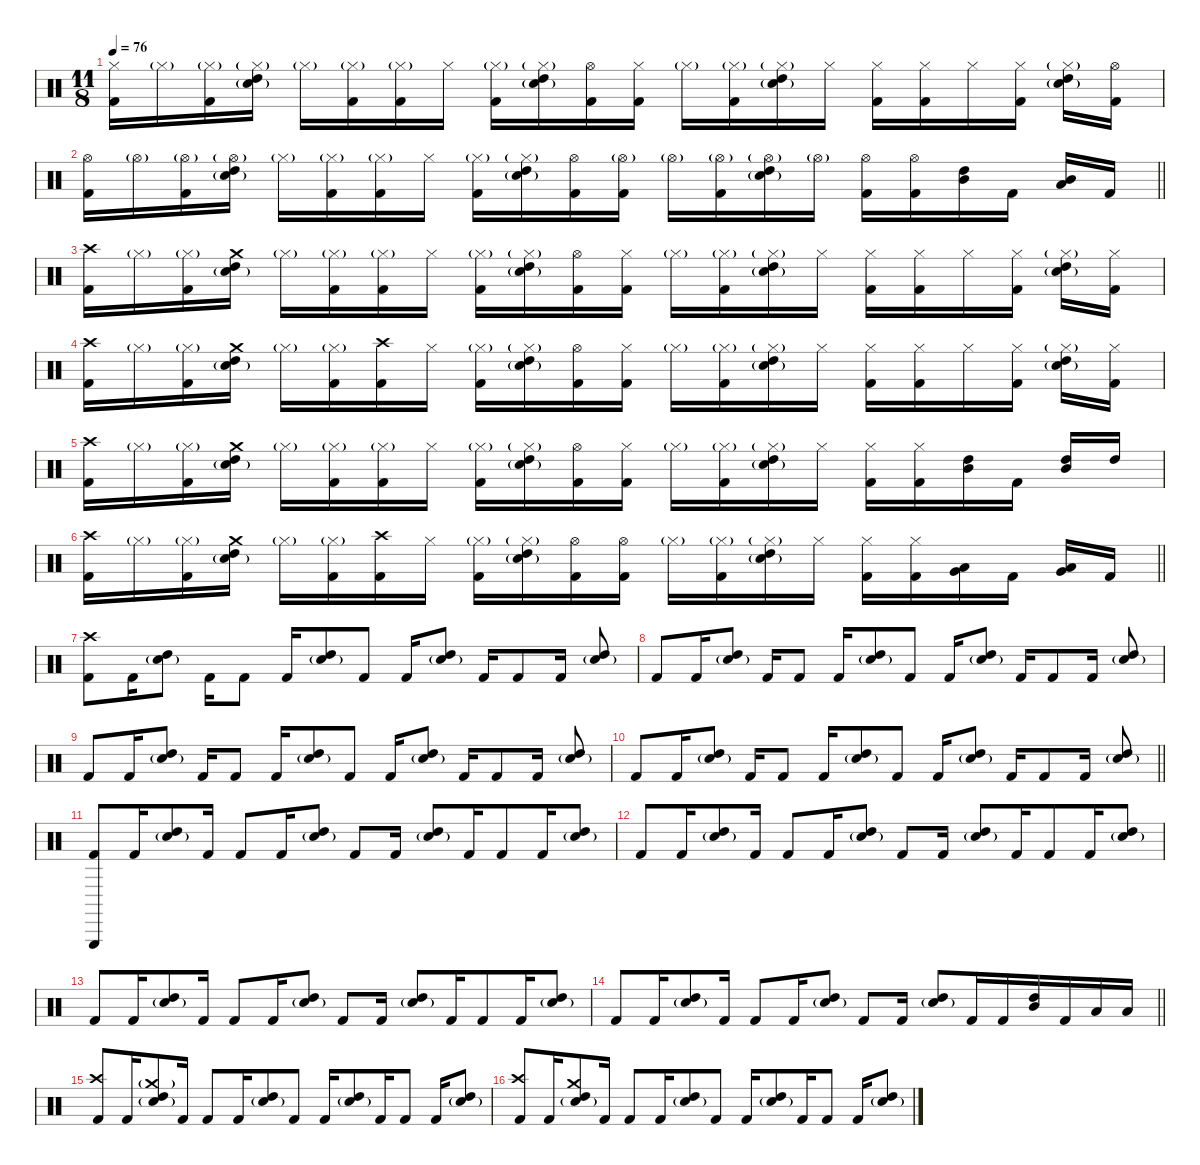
\defaultSystemsLayout 4
\hideDynamics
\bracketExtendMode nobrackets
\singleTrackTrackNamePolicy hidden
\multiTrackTrackNamePolicy hidden
\otherSystemsTrackNameOrientation horizontal
\track ("Drums" "drm.") {instrument percussion}
\staff {score}
\articulation defaults
\ts (11 8)
\tempo 76
\clef neutral
\ks c
("Hi-Hat (closed)" "Kick (hit) 2").16{dy f beam Down} "Hi-Hat (closed)"{g}.16{beam Down} ("Hi-Hat (closed)"{g} "Kick (hit) 2").16{beam Down} ("Hi-Hat (closed)"{g} "High Tom (hit)" "Snare (hit) 2"{g}).16{beam Down} "Hi-Hat (closed)"{g}.16{beam Down} ("Hi-Hat (closed)"{g} "Kick (hit) 2").16{beam Down} ("Hi-Hat (closed)"{g} "Kick (hit) 2").16{beam Down} "Hi-Hat (closed)".16{beam Down} ("Hi-Hat (closed)"{g} "Kick (hit) 2").16{beam Down} ("Hi-Hat (closed)"{g} "High Tom (hit)" "Snare (hit) 2"{g}).16{beam Down} ("Hi-Hat (open)" "Kick (hit) 2").16{beam Down} ("Hi-Hat (closed)" "Kick (hit) 2").16{beam Down} "Hi-Hat (closed)"{g}.16{beam Down} ("Hi-Hat (closed)"{g} "Kick (hit) 2").16{beam Down} ("Hi-Hat (closed)"{g} "High Tom (hit)" "Snare (hit) 2"{g}).16{beam Down} "Hi-Hat (closed)".16{beam Down} ("Hi-Hat (closed)" "Kick (hit) 2").16{beam Down} ("Hi-Hat (closed)" "Kick (hit) 2").16{beam Down} "Hi-Hat (closed)".16{beam Down} ("Hi-Hat (closed)" "Kick (hit) 2").16{beam Down} ("Hi-Hat (closed)"{g} "High Tom (hit)" "Snare (hit) 2"{g}).16{beam Down} ("Hi-Hat (open)" "Kick (hit) 2").16{beam Down} |
\barLineRight lightlight
("Hi-Hat (open)" "Kick (hit) 2").16{beam Down} "Hi-Hat (open)"{g}.16{beam Down} ("Hi-Hat (open)"{g} "Kick (hit) 2").16{beam Down} ("Hi-Hat (open)"{g} "High Tom (hit)" "Snare (hit) 2"{g}).16{beam Down} "Hi-Hat (closed)"{g}.16{beam Down} ("Hi-Hat (closed)"{g} "Kick (hit) 2").16{beam Down} ("Hi-Hat (closed)"{g} "Kick (hit) 2").16{beam Down} "Hi-Hat (closed)".16{beam Down} ("Hi-Hat (closed)"{g} "Kick (hit) 2").16{beam Down} ("Hi-Hat (closed)"{g} "High Tom (hit)" "Snare (hit) 2"{g}).16{beam Down} ("Hi-Hat (open)" "Kick (hit) 2").16{beam Down} ("Hi-Hat (open)"{g} "Kick (hit) 2").16{beam Down} "Hi-Hat (open)"{g}.16{beam Down} ("Hi-Hat (open)"{g} "Kick (hit) 2").16{beam Down} ("Hi-Hat (open)"{g} "High Tom (hit)" "Snare (hit) 2"{g}).16{beam Down} "Hi-Hat (open)"{g}.16{dy ff beam Down} ("Hi-Hat (open)" "Kick (hit) 2").16{dy f beam Down} ("Hi-Hat (open)" "Kick (hit) 2").16{beam Down} ("High Tom (hit)" "Mid Tom (hit)").16{beam Up} "Kick (hit) 2".16{beam Up} ("Mid Tom (hit)" "Low Tom (hit)").16{beam Up} "Kick (hit) 2".16{beam Up} |
\section ("" "")
("Crash high (hit)" "Kick (hit) 2").16{beam Down} "Hi-Hat (closed)"{g}.16{beam Down} ("Hi-Hat (closed)"{g} "Kick (hit) 2").16{beam Down} ("Crash medium (hit)" "High Tom (hit)" "Snare (hit) 2"{g}).16{beam Down} "Hi-Hat (closed)"{g}.16{beam Down} ("Hi-Hat (closed)"{g} "Kick (hit) 2").16{beam Down} ("Hi-Hat (closed)"{g} "Kick (hit) 2").16{beam Down} "Hi-Hat (closed)".16{beam Down} ("Hi-Hat (closed)"{g} "Kick (hit) 2").16{beam Down} ("Hi-Hat (closed)"{g} "High Tom (hit)" "Snare (hit) 2"{g}).16{beam Down} ("Hi-Hat (open)" "Kick (hit) 2").16{beam Down} ("Hi-Hat (closed)" "Kick (hit) 2").16{beam Down} "Hi-Hat (closed)"{g}.16{beam Down} ("Hi-Hat (closed)"{g} "Kick (hit) 2").16{beam Down} ("Hi-Hat (closed)"{g} "High Tom (hit)" "Snare (hit) 2"{g}).16{beam Down} "Hi-Hat (closed)".16{beam Down} ("Hi-Hat (closed)" "Kick (hit) 2").16{beam Down} ("Hi-Hat (closed)" "Kick (hit) 2").16{beam Down} "Hi-Hat (closed)".16{beam Down} ("Hi-Hat (closed)" "Kick (hit) 2").16{beam Down} ("Hi-Hat (closed)"{g} "High Tom (hit)" "Snare (hit) 2"{g}).16{beam Down} ("Hi-Hat (closed)" "Kick (hit) 2").16{beam Down} |
("Crash high (hit)" "Kick (hit) 2").16{beam Down} "Hi-Hat (closed)"{g}.16{beam Down} ("Hi-Hat (closed)"{g} "Kick (hit) 2").16{beam Down} ("Crash medium (hit)" "High Tom (hit)" "Snare (hit) 2"{g}).16{beam Down} "Hi-Hat (closed)"{g}.16{beam Down} ("Hi-Hat (closed)"{g} "Kick (hit) 2").16{beam Down} ("Crash high (hit)" "Kick (hit) 2").16{beam Down} "Hi-Hat (closed)".16{beam Down} ("Hi-Hat (closed)"{g} "Kick (hit) 2").16{beam Down} ("Hi-Hat (closed)"{g} "High Tom (hit)" "Snare (hit) 2"{g}).16{beam Down} ("Hi-Hat (open)" "Kick (hit) 2").16{beam Down} ("Hi-Hat (closed)" "Kick (hit) 2").16{beam Down} "Hi-Hat (closed)"{g}.16{beam Down} ("Hi-Hat (closed)"{g} "Kick (hit) 2").16{beam Down} ("Hi-Hat (closed)"{g} "High Tom (hit)" "Snare (hit) 2"{g}).16{beam Down} "Hi-Hat (closed)".16{beam Down} ("Hi-Hat (closed)" "Kick (hit) 2").16{beam Down} ("Hi-Hat (closed)" "Kick (hit) 2").16{beam Down} "Hi-Hat (closed)".16{beam Down} ("Hi-Hat (closed)" "Kick (hit) 2").16{beam Down} ("Hi-Hat (closed)"{g} "High Tom (hit)" "Snare (hit) 2"{g}).16{beam Down} ("Hi-Hat (closed)" "Kick (hit) 2").16{beam Down} |
("Crash high (hit)" "Kick (hit) 2").16{beam Down} "Hi-Hat (closed)"{g}.16{beam Down} ("Hi-Hat (closed)"{g} "Kick (hit) 2").16{beam Down} ("Crash medium (hit)" "High Tom (hit)" "Snare (hit) 2"{g}).16{beam Down} "Hi-Hat (closed)"{g}.16{beam Down} ("Hi-Hat (closed)"{g} "Kick (hit) 2").16{beam Down} ("Hi-Hat (closed)"{g} "Kick (hit) 2").16{beam Down} "Hi-Hat (closed)".16{beam Down} ("Hi-Hat (closed)"{g} "Kick (hit) 2").16{beam Down} ("Hi-Hat (closed)"{g} "High Tom (hit)" "Snare (hit) 2"{g}).16{beam Down} ("Hi-Hat (open)" "Kick (hit) 2").16{beam Down} ("Hi-Hat (closed)" "Kick (hit) 2").16{beam Down} "Hi-Hat (closed)"{g}.16{beam Down} ("Hi-Hat (closed)"{g} "Kick (hit) 2").16{beam Down} ("Hi-Hat (closed)"{g} "High Tom (hit)" "Snare (hit) 2"{g}).16{beam Down} "Hi-Hat (closed)".16{beam Down} ("Hi-Hat (closed)" "Kick (hit) 2").16{beam Down} ("Hi-Hat (closed)" "Kick (hit) 2").16{beam Down} ("High Tom (hit)" "Mid Tom (hit)").16{beam Up} "Kick (hit) 2".16{beam Up} ("High Tom (hit)" "Mid Tom (hit)").16{beam Up} "High Tom (hit)".16{beam Up} |
\barLineRight lightlight
("Crash high (hit)" "Kick (hit) 2").16{beam Down} "Hi-Hat (closed)"{g}.16{beam Down} ("Hi-Hat (closed)"{g} "Kick (hit) 2").16{beam Down} ("Crash medium (hit)" "High Tom (hit)" "Snare (hit) 2"{g}).16{beam Down} "Hi-Hat (closed)"{g}.16{beam Down} ("Hi-Hat (closed)"{g} "Kick (hit) 2").16{beam Down} ("Crash high (hit)" "Kick (hit) 2").16{beam Down} "Hi-Hat (closed)".16{beam Down} ("Hi-Hat (closed)"{g} "Kick (hit) 2").16{beam Down} ("Hi-Hat (closed)"{g} "High Tom (hit)" "Snare (hit) 2"{g}).16{beam Down} ("Hi-Hat (open)" "Kick (hit) 2").16{beam Down} ("Hi-Hat (open)" "Kick (hit) 2").16{beam Down} "Hi-Hat (closed)"{g}.16{beam Down} ("Hi-Hat (closed)"{g} "Kick (hit) 2").16{beam Down} ("Hi-Hat (closed)"{g} "High Tom (hit)" "Snare (hit) 2"{g}).16{beam Down} "Hi-Hat (closed)".16{beam Down} ("Hi-Hat (closed)" "Kick (hit) 2").16{beam Down} ("Hi-Hat (closed)" "Kick (hit) 2").16{beam Down} ("Low Tom (hit)" "Very Low Tom (hit)").16{beam Up} "Kick (hit) 2".16{beam Up} ("Very Low Tom (hit)" "Low Floor Tom (hit)").16{beam Up} "Kick (hit) 2".16{beam Up} |
\section ("" "")
("Crash high (hit)" "Kick (hit) 2").8{beam Down} "Kick (hit) 2".16{beam Down} ("High Tom (hit)" "Snare (hit) 2"{g}).8{beam Down} "Kick (hit) 2".16{beam Down} "Kick (hit) 2".8{beam Up} "Kick (hit) 2".16{beam Up} ("High Tom (hit)" "Snare (hit) 2"{g}).8{beam Up} "Kick (hit) 2".8{beam Up} "Kick (hit) 2".16{beam Up} ("High Tom (hit)" "Snare (hit) 2"{g}).8{beam Up} "Kick (hit) 2".16{beam Up} "Kick (hit) 2".8{beam Up} "Kick (hit) 2".16{beam Up} ("High Tom (hit)" "Snare (hit) 2"{g}).8{beam Up} |
"Kick (hit) 2".8{beam Up} "Kick (hit) 2".16{beam Up} ("High Tom (hit)" "Snare (hit) 2"{g}).8{beam Up} "Kick (hit) 2".16{beam Up} "Kick (hit) 2".8{beam Up} "Kick (hit) 2".16{beam Up} ("High Tom (hit)" "Snare (hit) 2"{g}).8{beam Up} "Kick (hit) 2".8{beam Up} "Kick (hit) 2".16{beam Up} ("High Tom (hit)" "Snare (hit) 2"{g}).8{beam Up} "Kick (hit) 2".16{beam Up} "Kick (hit) 2".8{beam Up} "Kick (hit) 2".16{beam Up} ("High Tom (hit)" "Snare (hit) 2"{g}).8{beam Up} |
"Kick (hit) 2".8{beam Up} "Kick (hit) 2".16{beam Up} ("High Tom (hit)" "Snare (hit) 2"{g}).8{beam Up} "Kick (hit) 2".16{beam Up} "Kick (hit) 2".8{beam Up} "Kick (hit) 2".16{beam Up} ("High Tom (hit)" "Snare (hit) 2"{g}).8{beam Up} "Kick (hit) 2".8{beam Up} "Kick (hit) 2".16{beam Up} ("High Tom (hit)" "Snare (hit) 2"{g}).8{beam Up} "Kick (hit) 2".16{beam Up} "Kick (hit) 2".8{beam Up} "Kick (hit) 2".16{beam Up} ("High Tom (hit)" "Snare (hit) 2"{g}).8{beam Up} |
\barLineRight lightlight "Kick (hit) 2".8{beam Up} "Kick (hit) 2".16{beam Up}
("High Tom (hit)" "Snare (hit) 2"{g}).8{beam Up} "Kick (hit) 2".16{beam Up} "Kick (hit) 2".8{beam Up} "Kick (hit) 2".16{beam Up} ("High Tom (hit)" "Snare (hit) 2"{g}).8{beam Up} "Kick (hit) 2".8{beam Up} "Kick (hit) 2".16{beam Up} ("High Tom (hit)" "Snare (hit) 2"{g}).8{beam Up} "Kick (hit) 2".16{beam Up} "Kick (hit) 2".8{beam Up} "Kick (hit) 2".16{beam Up} ("High Tom (hit)" "Snare (hit) 2"{g}).8{beam Up} |
\beaming (8 3 2 2 4)
\section ("" "")
("Triangle (hit)" "Kick (hit) 2").8{dy mf beam Up} "Kick (hit) 2".16{dy f beam Up} ("High Tom (hit)" "Snare (hit) 2"{g}).8{beam Up} "Kick (hit) 2".16{beam Up} "Kick (hit) 2".8{beam Up} "Kick (hit) 2".16{beam Up} ("High Tom (hit)" "Snare (hit) 2"{g}).8{beam Up} "Kick (hit) 2".8{beam Up} "Kick (hit) 2".16{beam Up} ("High Tom (hit)" "Snare (hit) 2"{g}).8{beam Up} "Kick (hit) 2".16{beam Up} "Kick (hit) 2".8{beam Up} "Kick (hit) 2".16{beam Up} ("High Tom (hit)" "Snare (hit) 2"{g}).8{beam Up} |
"Kick (hit) 2".8{beam Up} "Kick (hit) 2".16{beam Up} ("High Tom (hit)" "Snare (hit) 2"{g}).8{beam Up} "Kick (hit) 2".16{beam Up} "Kick (hit) 2".8{beam Up} "Kick (hit) 2".16{beam Up} ("High Tom (hit)" "Snare (hit) 2"{g}).8{beam Up} "Kick (hit) 2".8{beam Up} "Kick (hit) 2".16{beam Up} ("High Tom (hit)" "Snare (hit) 2"{g}).8{beam Up} "Kick (hit) 2".16{beam Up} "Kick (hit) 2".8{beam Up} "Kick (hit) 2".16{beam Up} ("High Tom (hit)" "Snare (hit) 2"{g}).8{beam Up} |
"Kick (hit) 2".8{beam Up} "Kick (hit) 2".16{beam Up} ("High Tom (hit)" "Snare (hit) 2"{g}).8{beam Up} "Kick (hit) 2".16{beam Up} "Kick (hit) 2".8{beam Up} "Kick (hit) 2".16{beam Up} ("High Tom (hit)" "Snare (hit) 2"{g}).8{beam Up} "Kick (hit) 2".8{beam Up} "Kick (hit) 2".16{beam Up} ("High Tom (hit)" "Snare (hit) 2"{g}).8{beam Up} "Kick (hit) 2".16{beam Up} "Kick (hit) 2".8{beam Up} "Kick (hit) 2".16{beam Up} ("High Tom (hit)" "Snare (hit) 2"{g}).8{beam Up} |
\barLineRight lightlight "Kick (hit) 2".8{beam Up} "Kick (hit) 2".16{beam Up}
("High Tom (hit)" "Snare (hit) 2"{g}).8{beam Up} "Kick (hit) 2".16{beam Up} "Kick (hit) 2".8{beam Up} "Kick (hit) 2".16{beam Up} ("High Tom (hit)" "Snare (hit) 2"{g}).8{beam Up} "Kick (hit) 2".8{beam Up} "Kick (hit) 2".16{beam Up} ("High Tom (hit)" "Snare (hit) 2"{g}).8{beam Up} "Kick (hit) 2".16{beam Up} "Kick (hit) 2".16{beam Up} ("High Tom (hit)" "Mid Tom (hit)").16{beam Up} "Kick (hit) 2".16{beam Up} "Low Tom (hit)".16{beam Up} "Low Tom (hit)".16{beam Up} |
\beaming (8 3 3 3 2)
\section ("" "")
("Crash high (hit)" "Kick (hit) 2").8{beam Up} "Kick (hit) 2".16{beam Up} ("Crash medium (hit)"{g} "High Tom (hit)" "Snare (hit) 2"{g}).8{beam Up} "Kick (hit) 2".16{beam Up} "Kick (hit) 2".8{beam Up} "Kick (hit) 2".16{beam Up} ("High Tom (hit)" "Snare (hit) 2"{g}).8{beam Up} "Kick (hit) 2".8{beam Up} "Kick (hit) 2".16{beam Up} ("High Tom (hit)" "Snare (hit) 2"{g}).8{beam Up} "Kick (hit) 2".16{beam Up} "Kick (hit) 2".8{beam Up} "Kick (hit) 2".16{beam Up} ("High Tom (hit)" "Snare (hit) 2"{g}).8{beam Up} |
("Crash high (hit)" "Kick (hit) 2").8{beam Up} "Kick (hit) 2".16{beam Up} ("Crash medium (hit)" "High Tom (hit)" "Snare (hit) 2"{g}).8{beam Up} "Kick (hit) 2".16{beam Up} "Kick (hit) 2".8{beam Up} "Kick (hit) 2".16{beam Up} ("High Tom (hit)" "Snare (hit) 2"{g}).8{beam Up} "Kick (hit) 2".8{beam Up} "Kick (hit) 2".16{beam Up} ("High Tom (hit)" "Snare (hit) 2"{g}).8{beam Up} "Kick (hit) 2".16{beam Up} "Kick (hit) 2".8{beam Up} "Kick (hit) 2".16{beam Up} ("High Tom (hit)" "Snare (hit) 2"{g}).8{beam Up}
